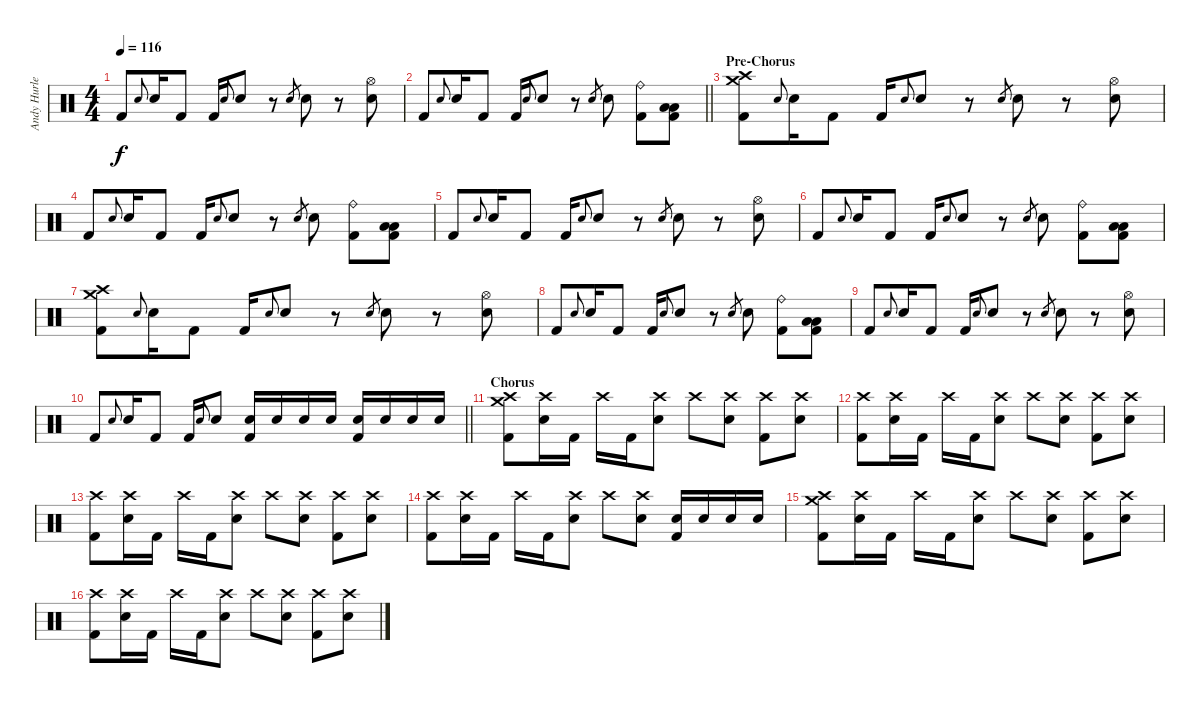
\track ("Andy Hurley" "Andy Hurle") {instrument percussion}
\staff {score}
\articulation defaults
\ts (4 4)
\tempo 116
\clef neutral
\ks c "Kick (hit) 2".8{dy f} "Electric Snare (hit)".8{gr onbeat} "Electric Snare (hit)".16 "Kick (hit) 2".8 "Kick (hit) 2".16 "Electric Snare (hit)".8{gr onbeat} "Electric Snare (hit)".8
r.8 "Electric Snare (hit)".8{gr} "Electric Snare (hit)".8 r.8 ("Hi-Hat (open)" "Electric Snare (hit)").8 |
\barLineRight lightlight "Kick (hit) 2".8 "Electric Snare (hit)".8{gr onbeat} "Electric Snare (hit)".16 "Kick (hit) 2".8 "Kick (hit) 2".16 "Electric Snare (hit)".8{gr onbeat} "Electric Snare (hit)".8
r.8 "Electric Snare (hit)".8{gr} "Electric Snare (hit)".8 ("Ride (bell)" "Kick (hit) 2").8 ("Low Tom (hit)" "Low Floor Tom (hit)" "Kick (hit) 2").8 |
\section ("" "Pre-Chorus")
("Crash high (hit)" "Crash medium (hit)" "Kick (hit) 2").8 "Electric Snare (hit)".8{gr onbeat} "Electric Snare (hit)".16 "Kick (hit) 2".8 "Kick (hit) 2".16 "Electric Snare (hit)".8{gr onbeat} "Electric Snare (hit)".8 r.8 "Electric Snare (hit)".8{gr} "Electric Snare (hit)".8 r.8 ("Hi-Hat (open)" "Electric Snare (hit)").8 |
"Kick (hit) 2".8 "Electric Snare (hit)".8{gr onbeat} "Electric Snare (hit)".16 "Kick (hit) 2".8 "Kick (hit) 2".16 "Electric Snare (hit)".8{gr onbeat} "Electric Snare (hit)".8 r.8 "Electric Snare (hit)".8{gr} "Electric Snare (hit)".8 ("Ride (bell)" "Kick (hit) 2").8 ("Low Tom (hit)" "Low Floor Tom (hit)" "Kick (hit) 2").8 |
"Kick (hit) 2".8 "Electric Snare (hit)".8{gr onbeat} "Electric Snare (hit)".16 "Kick (hit) 2".8 "Kick (hit) 2".16 "Electric Snare (hit)".8{gr onbeat} "Electric Snare (hit)".8 r.8 "Electric Snare (hit)".8{gr} "Electric Snare (hit)".8 r.8 ("Hi-Hat (open)" "Electric Snare (hit)").8 |
"Kick (hit) 2".8 "Electric Snare (hit)".8{gr onbeat} "Electric Snare (hit)".16 "Kick (hit) 2".8 "Kick (hit) 2".16 "Electric Snare (hit)".8{gr onbeat} "Electric Snare (hit)".8 r.8 "Electric Snare (hit)".8{gr} "Electric Snare (hit)".8 ("Ride (bell)" "Kick (hit) 2").8 ("Low Tom (hit)" "Low Floor Tom (hit)" "Kick (hit) 2").8 |
("Crash high (hit)" "Crash medium (hit)" "Kick (hit) 2").8 "Electric Snare (hit)".8{gr onbeat} "Electric Snare (hit)".16 "Kick (hit) 2".8 "Kick (hit) 2".16 "Electric Snare (hit)".8{gr onbeat} "Electric Snare (hit)".8 r.8 "Electric Snare (hit)".8{gr} "Electric Snare (hit)".8 r.8 ("Hi-Hat (open)" "Electric Snare (hit)").8 |
"Kick (hit) 2".8 "Electric Snare (hit)".8{gr onbeat} "Electric Snare (hit)".16 "Kick (hit) 2".8 "Kick (hit) 2".16 "Electric Snare (hit)".8{gr onbeat} "Electric Snare (hit)".8 r.8 "Electric Snare (hit)".8{gr} "Electric Snare (hit)".8 ("Ride (bell)" "Kick (hit) 2").8 ("Low Tom (hit)" "Low Floor Tom (hit)" "Kick (hit) 2").8 |
"Kick (hit) 2".8 "Electric Snare (hit)".8{gr onbeat} "Electric Snare (hit)".16 "Kick (hit) 2".8 "Kick (hit) 2".16 "Electric Snare (hit)".8{gr onbeat} "Electric Snare (hit)".8 r.8 "Electric Snare (hit)".8{gr} "Electric Snare (hit)".8 r.8 ("Hi-Hat (open)" "Electric Snare (hit)").8 |
\barLineRight lightlight "Kick (hit) 2".8 "Electric Snare (hit)".8{gr onbeat} "Electric Snare (hit)".16 "Kick (hit) 2".8 "Kick (hit) 2".16 "Electric Snare (hit)".8{gr onbeat} "Electric Snare (hit)".8
("Electric Snare (hit)" "Kick (hit) 2").16 "Electric Snare (hit)".16 "Electric Snare (hit)".16 "Electric Snare (hit)".16 ("Electric Snare (hit)" "Kick (hit) 2").16 "Electric Snare (hit)".16 "Electric Snare (hit)".16 "Electric Snare (hit)".16 |
\section ("" "Chorus")
("Crash medium (hit)" "Crash high (hit)" "Kick (hit) 2").8 ("Crash high (hit)" "Electric Snare (hit)").16 "Kick (hit) 2".16 "Crash high (hit)".16 "Kick (hit) 2".16 ("Crash high (hit)" "Electric Snare (hit)").8 "Crash high (hit)".8 ("Crash high (hit)" "Electric Snare (hit)").8 ("Crash high (hit)" "Kick (hit) 2").8 ("Crash high (hit)" "Electric Snare (hit)").8 |
("Crash high (hit)" "Kick (hit) 2").8 ("Crash high (hit)" "Electric Snare (hit)").16 "Kick (hit) 2".16 "Crash high (hit)".16 "Kick (hit) 2".16 ("Crash high (hit)" "Electric Snare (hit)").8 "Crash high (hit)".8 ("Crash high (hit)" "Electric Snare (hit)").8 ("Crash high (hit)" "Kick (hit) 2").8 ("Crash high (hit)" "Electric Snare (hit)").8 |
("Crash high (hit)" "Kick (hit) 2").8 ("Crash high (hit)" "Electric Snare (hit)").16 "Kick (hit) 2".16 "Crash high (hit)".16 "Kick (hit) 2".16 ("Crash high (hit)" "Electric Snare (hit)").8 "Crash high (hit)".8 ("Crash high (hit)" "Electric Snare (hit)").8 ("Crash high (hit)" "Kick (hit) 2").8 ("Crash high (hit)" "Electric Snare (hit)").8 |
("Crash high (hit)" "Kick (hit) 2").8 ("Crash high (hit)" "Electric Snare (hit)").16 "Kick (hit) 2".16 "Crash high (hit)".16 "Kick (hit) 2".16 ("Crash high (hit)" "Electric Snare (hit)").8 "Crash high (hit)".8 ("Crash high (hit)" "Electric Snare (hit)").8 ("Electric Snare (hit)" "Kick (hit) 2").16 "Electric Snare (hit)".16 "Electric Snare (hit)".16 "Electric Snare (hit)".16 |
("Crash medium (hit)" "Crash high (hit)" "Kick (hit) 2").8 ("Crash high (hit)" "Electric Snare (hit)").16 "Kick (hit) 2".16 "Crash high (hit)".16 "Kick (hit) 2".16 ("Crash high (hit)" "Electric Snare (hit)").8 "Crash high (hit)".8 ("Crash high (hit)" "Electric Snare (hit)").8 ("Crash high (hit)" "Kick (hit) 2").8 ("Crash high (hit)" "Electric Snare (hit)").8 |
("Crash high (hit)" "Kick (hit) 2").8 ("Crash high (hit)" "Electric Snare (hit)").16 "Kick (hit) 2".16 "Crash high (hit)".16 "Kick (hit) 2".16 ("Crash high (hit)" "Electric Snare (hit)").8 "Crash high (hit)".8 ("Crash high (hit)" "Electric Snare (hit)").8 ("Crash high (hit)" "Kick (hit) 2").8 ("Crash high (hit)" "Electric Snare (hit)").8
